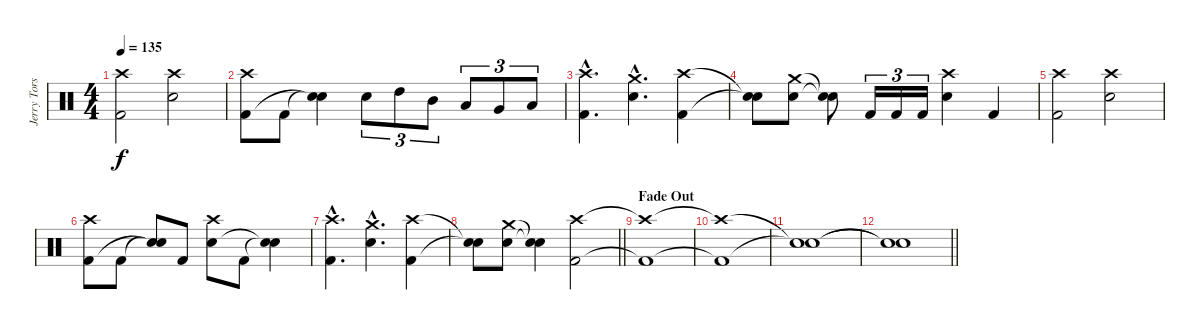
\track ("Jerry Torstensson" "Jerry Tors") {instrument percussion}
\staff {score}
\articulation defaults
\ts (4 4)
\tempo 135
\clef neutral
\ks c
("Crash high (hit)" "Kick (hit) 2").2{dy f} ("Crash high (hit)" "Snare (hit) 2").2 |
("Crash high (hit)" "Kick (hit) 2").8 "Kick (hit) 2".8 ("Snare (hit)"{t} "Snare (hit)"{t}).4 "Snare (hit) 2".8{tu (3 2)} "High Tom (hit)".8{tu (3 2)} "Mid Tom (hit)".8{tu (3 2)} "Low Tom (hit)".8{tu (3 2)} "Very Low Tom (hit)".8{tu (3 2)} "Low Floor Tom (hit)".8{tu (3 2)} |
("Crash high (hit)"{hac} "Kick (hit) 2"{hac}).4{d} ("Crash medium (hit)"{hac} "Snare (hit) 2"{hac}).4{d} ("Crash high (hit)" "Kick (hit) 2").4 |
("Snare (hit)"{t} "Snare (hit)"{t}).8 ("Crash medium (hit)" "Snare (hit) 2").8 ("Snare (hit)"{t} "Snare (hit)"{t}).8 "Kick (hit) 2".16{tu (3 2)} "Kick (hit) 2".16{tu (3 2)} "Kick (hit) 2".16{tu (3 2)} ("Crash high (hit)" "Snare (hit) 2").4 "Kick (hit) 2".4 |
("Crash high (hit)" "Kick (hit) 2").2 ("Crash high (hit)" "Snare (hit) 2").2 |
("Crash high (hit)" "Kick (hit) 2").8 "Kick (hit) 2".8 ("Snare (hit)"{t} "Snare (hit)"{t}).8 "Kick (hit) 2".8 ("Crash high (hit)" "Snare (hit) 2").8 "Kick (hit) 2".8 ("Snare (hit)"{t} "Snare (hit)"{t}).4 |
("Crash high (hit)"{hac} "Kick (hit) 2"{hac}).4{d} ("Crash medium (hit)"{hac} "Snare (hit) 2"{hac}).4{d} ("Crash high (hit)" "Kick (hit) 2").4 |
\barLineRight lightlight
("Snare (hit)"{t} "Snare (hit)"{t}).8 ("Crash medium (hit)" "Snare (hit) 2").8 ("Snare (hit)"{t} "Snare (hit)"{t}).4 ("Crash high (hit)" "Kick (hit) 2").2{volume 0} |
\section ("" "Fade Out")
("Crash high (hit)"{t} "Kick (hit) 2"{t}).1 |
("Crash high (hit)"{t} "Kick (hit) 2"{t}).1 |
("Snare (hit)"{t} "Snare (hit)"{t}).1 |
\barLineRight lightlight
("Snare (hit)"{t} "Snare (hit)"{t}).1
